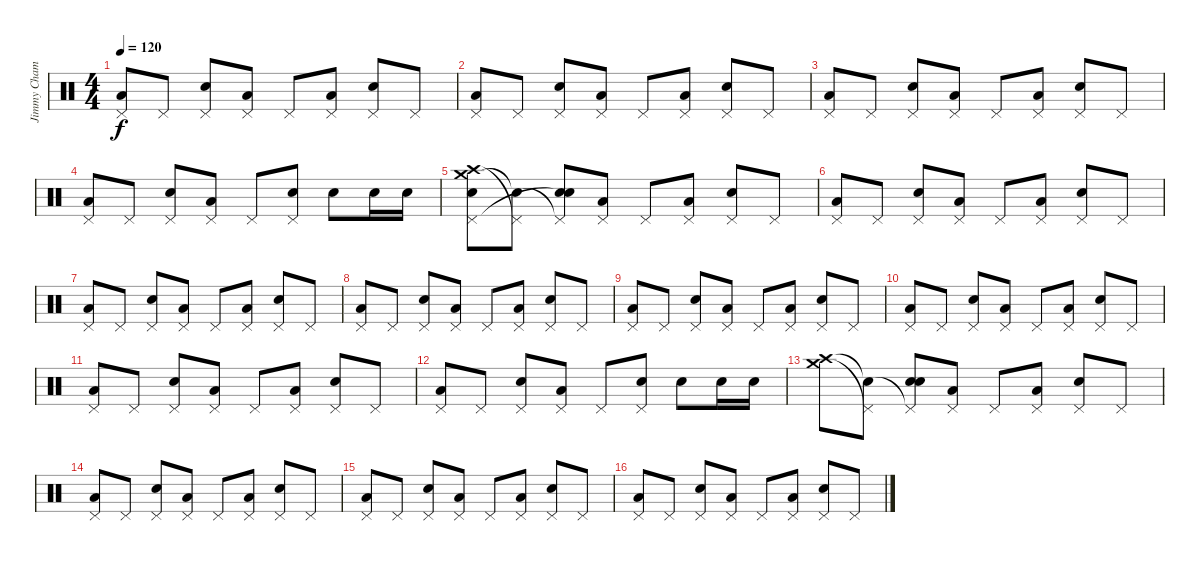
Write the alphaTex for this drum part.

\track ("Jimmy Chamberlin" "Jimmy Cham") {instrument percussion}
\staff {score}
\articulation defaults
\ts (4 4)
\tempo 120
\clef neutral
\ks c
("Low Floor Tom (hit)" "Pedal Hi-Hat (hit)").8{dy f} "Pedal Hi-Hat (hit)".8 ("Snare (hit) 2" "Pedal Hi-Hat (hit)").8 ("Low Floor Tom (hit)" "Pedal Hi-Hat (hit)").8 "Pedal Hi-Hat (hit)".8 ("Low Floor Tom (hit)" "Pedal Hi-Hat (hit)").8 ("Snare (hit) 2" "Pedal Hi-Hat (hit)").8 "Pedal Hi-Hat (hit)".8 |
("Low Floor Tom (hit)" "Pedal Hi-Hat (hit)").8 "Pedal Hi-Hat (hit)".8 ("Snare (hit) 2" "Pedal Hi-Hat (hit)").8 ("Low Floor Tom (hit)" "Pedal Hi-Hat (hit)").8 "Pedal Hi-Hat (hit)".8 ("Low Floor Tom (hit)" "Pedal Hi-Hat (hit)").8 ("Snare (hit) 2" "Pedal Hi-Hat (hit)").8 "Pedal Hi-Hat (hit)".8 |
("Low Floor Tom (hit)" "Pedal Hi-Hat (hit)").8 "Pedal Hi-Hat (hit)".8 ("Snare (hit) 2" "Pedal Hi-Hat (hit)").8 ("Low Floor Tom (hit)" "Pedal Hi-Hat (hit)").8 "Pedal Hi-Hat (hit)".8 ("Low Floor Tom (hit)" "Pedal Hi-Hat (hit)").8 ("Snare (hit) 2" "Pedal Hi-Hat (hit)").8 "Pedal Hi-Hat (hit)".8 |
("Low Floor Tom (hit)" "Pedal Hi-Hat (hit)").8 "Pedal Hi-Hat (hit)".8 ("Snare (hit) 2" "Pedal Hi-Hat (hit)").8 ("Low Floor Tom (hit)" "Pedal Hi-Hat (hit)").8 "Pedal Hi-Hat (hit)".8 ("Snare (hit) 2" "Pedal Hi-Hat (hit)").8 "Snare (hit) 2".8 "Snare (hit) 2".16 "Snare (hit) 2".16 |
("Crash high (hit)" "Crash medium (hit)" "Pedal Hi-Hat (hit)" "Snare (hit)").8 ("Pedal Hi-Hat (hit)"{t} "Snare (hit)"{t}).8 ("Snare (hit) 2" "Pedal Hi-Hat (hit)"{t} "Snare (hit)"{t}).8 ("Low Floor Tom (hit)" "Pedal Hi-Hat (hit)").8 "Pedal Hi-Hat (hit)".8 ("Low Floor Tom (hit)" "Pedal Hi-Hat (hit)").8 ("Snare (hit) 2" "Pedal Hi-Hat (hit)").8 "Pedal Hi-Hat (hit)".8 |
("Low Floor Tom (hit)" "Pedal Hi-Hat (hit)").8 "Pedal Hi-Hat (hit)".8 ("Snare (hit) 2" "Pedal Hi-Hat (hit)").8 ("Low Floor Tom (hit)" "Pedal Hi-Hat (hit)").8 "Pedal Hi-Hat (hit)".8 ("Low Floor Tom (hit)" "Pedal Hi-Hat (hit)").8 ("Snare (hit) 2" "Pedal Hi-Hat (hit)").8 "Pedal Hi-Hat (hit)".8 |
("Low Floor Tom (hit)" "Pedal Hi-Hat (hit)").8 "Pedal Hi-Hat (hit)".8 ("Snare (hit) 2" "Pedal Hi-Hat (hit)").8 ("Low Floor Tom (hit)" "Pedal Hi-Hat (hit)").8 "Pedal Hi-Hat (hit)".8 ("Low Floor Tom (hit)" "Pedal Hi-Hat (hit)").8 ("Snare (hit) 2" "Pedal Hi-Hat (hit)").8 "Pedal Hi-Hat (hit)".8 |
("Low Floor Tom (hit)" "Pedal Hi-Hat (hit)").8 "Pedal Hi-Hat (hit)".8 ("Snare (hit) 2" "Pedal Hi-Hat (hit)").8 ("Low Floor Tom (hit)" "Pedal Hi-Hat (hit)").8 "Pedal Hi-Hat (hit)".8 ("Low Floor Tom (hit)" "Pedal Hi-Hat (hit)").8 ("Snare (hit) 2" "Pedal Hi-Hat (hit)").8 "Pedal Hi-Hat (hit)".8 |
("Low Floor Tom (hit)" "Pedal Hi-Hat (hit)").8 "Pedal Hi-Hat (hit)".8 ("Snare (hit) 2" "Pedal Hi-Hat (hit)").8 ("Low Floor Tom (hit)" "Pedal Hi-Hat (hit)").8 "Pedal Hi-Hat (hit)".8 ("Low Floor Tom (hit)" "Pedal Hi-Hat (hit)").8 ("Snare (hit) 2" "Pedal Hi-Hat (hit)").8 "Pedal Hi-Hat (hit)".8 |
("Low Floor Tom (hit)" "Pedal Hi-Hat (hit)").8 "Pedal Hi-Hat (hit)".8 ("Snare (hit) 2" "Pedal Hi-Hat (hit)").8 ("Low Floor Tom (hit)" "Pedal Hi-Hat (hit)").8 "Pedal Hi-Hat (hit)".8 ("Low Floor Tom (hit)" "Pedal Hi-Hat (hit)").8 ("Snare (hit) 2" "Pedal Hi-Hat (hit)").8 "Pedal Hi-Hat (hit)".8 |
("Low Floor Tom (hit)" "Pedal Hi-Hat (hit)").8 "Pedal Hi-Hat (hit)".8 ("Snare (hit) 2" "Pedal Hi-Hat (hit)").8 ("Low Floor Tom (hit)" "Pedal Hi-Hat (hit)").8 "Pedal Hi-Hat (hit)".8 ("Low Floor Tom (hit)" "Pedal Hi-Hat (hit)").8 ("Snare (hit) 2" "Pedal Hi-Hat (hit)").8 "Pedal Hi-Hat (hit)".8 |
("Low Floor Tom (hit)" "Pedal Hi-Hat (hit)").8 "Pedal Hi-Hat (hit)".8 ("Snare (hit) 2" "Pedal Hi-Hat (hit)").8 ("Low Floor Tom (hit)" "Pedal Hi-Hat (hit)").8 "Pedal Hi-Hat (hit)".8 ("Snare (hit) 2" "Pedal Hi-Hat (hit)").8 "Snare (hit) 2".8 "Snare (hit) 2".16 "Snare (hit) 2".16 |
("Crash medium (hit)" "Crash high (hit)").8 ("Pedal Hi-Hat (hit)"{t} "Snare (hit)"{t}).8 ("Snare (hit) 2" "Pedal Hi-Hat (hit)"{t} "Snare (hit)").8 ("Low Floor Tom (hit)" "Pedal Hi-Hat (hit)").8 "Pedal Hi-Hat (hit)".8 ("Low Floor Tom (hit)" "Pedal Hi-Hat (hit)").8 ("Snare (hit) 2" "Pedal Hi-Hat (hit)").8 "Pedal Hi-Hat (hit)".8 |
("Low Floor Tom (hit)" "Pedal Hi-Hat (hit)").8 "Pedal Hi-Hat (hit)".8 ("Snare (hit) 2" "Pedal Hi-Hat (hit)").8 ("Low Floor Tom (hit)" "Pedal Hi-Hat (hit)").8 "Pedal Hi-Hat (hit)".8 ("Low Floor Tom (hit)" "Pedal Hi-Hat (hit)").8 ("Snare (hit) 2" "Pedal Hi-Hat (hit)").8 "Pedal Hi-Hat (hit)".8 |
("Low Floor Tom (hit)" "Pedal Hi-Hat (hit)").8 "Pedal Hi-Hat (hit)".8 ("Snare (hit) 2" "Pedal Hi-Hat (hit)").8 ("Low Floor Tom (hit)" "Pedal Hi-Hat (hit)").8 "Pedal Hi-Hat (hit)".8 ("Low Floor Tom (hit)" "Pedal Hi-Hat (hit)").8 ("Snare (hit) 2" "Pedal Hi-Hat (hit)").8 "Pedal Hi-Hat (hit)".8 |
("Low Floor Tom (hit)" "Pedal Hi-Hat (hit)").8 "Pedal Hi-Hat (hit)".8 ("Snare (hit) 2" "Pedal Hi-Hat (hit)").8 ("Low Floor Tom (hit)" "Pedal Hi-Hat (hit)").8 "Pedal Hi-Hat (hit)".8 ("Low Floor Tom (hit)" "Pedal Hi-Hat (hit)").8 ("Snare (hit) 2" "Pedal Hi-Hat (hit)").8 "Pedal Hi-Hat (hit)".8
